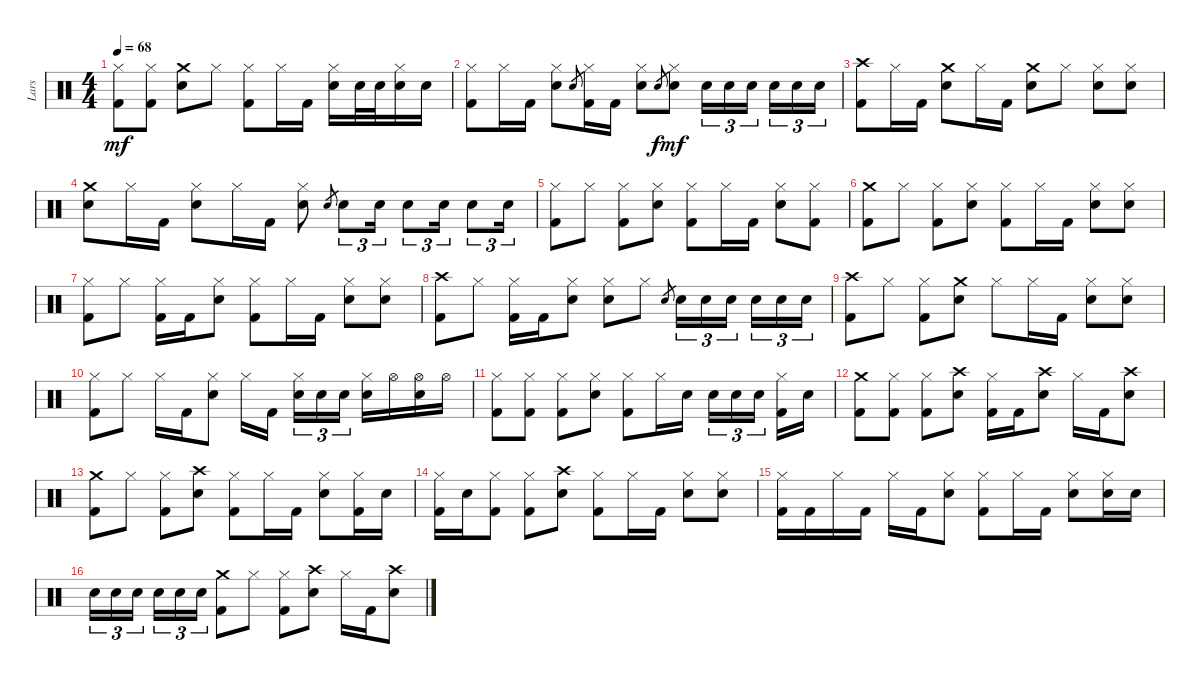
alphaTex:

\track ("Lars" "Lars") {instrument percussion}
\staff {score}
\articulation defaults
\ts (4 4)
\tempo 68
\clef neutral
\ks c
("Hi-Hat (closed)" "Kick (hit) 2").8{dy mf} ("Hi-Hat (closed)" "Kick (hit) 2").8 ("Crash medium (hit)" "Electric Snare (hit)").8 "Hi-Hat (closed)".8 ("Hi-Hat (closed)" "Kick (hit) 2").8 "Hi-Hat (closed)".16 "Kick (hit) 2".16 ("Hi-Hat (closed)" "Electric Snare (hit)").16 "Electric Snare (hit)".32 "Electric Snare (hit)".32 ("Hi-Hat (closed)" "Electric Snare (hit)").16 "Electric Snare (hit)".16 |
("Hi-Hat (closed)" "Kick (hit) 2").8 "Hi-Hat (closed)".16 "Kick (hit) 2".16 ("Hi-Hat (closed)" "Electric Snare (hit)").8 "Electric Snare (hit)".8{gr} ("Hi-Hat (closed)" "Kick (hit) 2").16 "Kick (hit) 2".16 ("Hi-Hat (closed)" "Electric Snare (hit)").8 "Electric Snare (hit)".8{gr dy f} ("Hi-Hat (closed)" "Electric Snare (hit)").8{dy mf} "Electric Snare (hit)".16{tu (3 2)} "Electric Snare (hit)".16{tu (3 2)} "Electric Snare (hit)".16{tu (3 2) beam splitsecondary} "Electric Snare (hit)".16{tu (3 2)} "Electric Snare (hit)".16{tu (3 2)} "Electric Snare (hit)".16{tu (3 2)} |
("Crash high (hit)" "Kick (hit) 2").8 "Hi-Hat (closed)".16 "Kick (hit) 2".16 ("Crash medium (hit)" "Electric Snare (hit)").8 "Hi-Hat (closed)".16 "Kick (hit) 2".16 ("Crash medium (hit)" "Electric Snare (hit)").8 "Hi-Hat (closed)".8 ("Hi-Hat (closed)" "Electric Snare (hit)").8 ("Hi-Hat (closed)" "Electric Snare (hit)").8 |
("Crash medium (hit)" "Electric Snare (hit)").8 "Hi-Hat (closed)".16 "Kick (hit) 2".16 ("Hi-Hat (closed)" "Electric Snare (hit)").8 "Hi-Hat (closed)".16 "Kick (hit) 2".16 ("Hi-Hat (closed)" "Electric Snare (hit)").8 "Electric Snare (hit)".8{gr} "Electric Snare (hit)".8{tu (3 2)} "Electric Snare (hit)".16{tu (3 2)} "Electric Snare (hit)".8{tu (3 2)} "Electric Snare (hit)".16{tu (3 2)} "Electric Snare (hit)".8{tu (3 2)} "Electric Snare (hit)".16{tu (3 2)} |
("Hi-Hat (closed)" "Kick (hit) 2").8 "Hi-Hat (closed)".8 ("Hi-Hat (closed)" "Kick (hit) 2").8 ("Hi-Hat (closed)" "Electric Snare (hit)").8 ("Hi-Hat (closed)" "Kick (hit) 2").8 "Hi-Hat (closed)".16 "Kick (hit) 2".16 ("Hi-Hat (closed)" "Electric Snare (hit)").8 ("Hi-Hat (closed)" "Kick (hit) 2").8 |
("Crash medium (hit)" "Kick (hit) 2").8 "Hi-Hat (closed)".8 ("Hi-Hat (closed)" "Kick (hit) 2").8 ("Hi-Hat (closed)" "Electric Snare (hit)").8 ("Hi-Hat (closed)" "Kick (hit) 2").8 "Hi-Hat (closed)".16 "Kick (hit) 2".16 ("Hi-Hat (closed)" "Electric Snare (hit)").8 ("Hi-Hat (closed)" "Electric Snare (hit)").8 |
("Hi-Hat (closed)" "Kick (hit) 2").8 "Hi-Hat (closed)".8 ("Hi-Hat (closed)" "Kick (hit) 2").16 "Kick (hit) 2".16 ("Hi-Hat (closed)" "Electric Snare (hit)").8 ("Hi-Hat (closed)" "Kick (hit) 2").8 "Hi-Hat (closed)".16 "Kick (hit) 2".16 ("Hi-Hat (closed)" "Electric Snare (hit)").8 ("Hi-Hat (closed)" "Electric Snare (hit)").8 |
("Crash high (hit)" "Kick (hit) 2").8 "Hi-Hat (closed)".8 ("Hi-Hat (closed)" "Kick (hit) 2").16 "Kick (hit) 2".16 ("Hi-Hat (closed)" "Electric Snare (hit)").8 ("Hi-Hat (closed)" "Electric Snare (hit)").8 "Hi-Hat (closed)".8 "Electric Snare (hit)".8{gr} "Electric Snare (hit)".16{tu (3 2)} "Electric Snare (hit)".16{tu (3 2)} "Electric Snare (hit)".16{tu (3 2) beam splitsecondary} "Electric Snare (hit)".16{tu (3 2)} "Electric Snare (hit)".16{tu (3 2)} "Electric Snare (hit)".16{tu (3 2)} |
("Crash high (hit)" "Kick (hit) 2").8 "Hi-Hat (closed)".8 ("Hi-Hat (closed)" "Kick (hit) 2").8 ("Crash medium (hit)" "Electric Snare (hit)").8 "Hi-Hat (closed)".8 "Hi-Hat (closed)".16 "Kick (hit) 2".16 ("Hi-Hat (closed)" "Electric Snare (hit)").8 ("Hi-Hat (closed)" "Electric Snare (hit)").8 |
("Hi-Hat (closed)" "Kick (hit) 2").8 "Hi-Hat (closed)".8 "Hi-Hat (closed)".16 "Kick (hit) 2".16 ("Hi-Hat (closed)" "Electric Snare (hit)").8 "Hi-Hat (closed)".16 "Kick (hit) 2".16{beam splitsecondary} ("Hi-Hat (closed)" "Electric Snare (hit)").16{tu (3 2)} "Electric Snare (hit)".16{tu (3 2)} "Electric Snare (hit)".16{tu (3 2)} ("Hi-Hat (closed)" "Electric Snare (hit)").16 "Hi-Hat (open)".16 ("Hi-Hat (open)" "Electric Snare (hit)").16 "Hi-Hat (open)".16 |
("Hi-Hat (closed)" "Kick (hit) 2").8 ("Hi-Hat (closed)" "Kick (hit) 2").8 ("Hi-Hat (closed)" "Kick (hit) 2").8 ("Hi-Hat (closed)" "Electric Snare (hit)").8 ("Hi-Hat (closed)" "Kick (hit) 2").8 "Hi-Hat (closed)".16 "Electric Snare (hit)".16 "Electric Snare (hit)".16{tu (3 2)} "Electric Snare (hit)".16{tu (3 2)} "Electric Snare (hit)".16{tu (3 2) beam splitsecondary} ("Hi-Hat (closed)" "Kick (hit) 2").16 "Electric Snare (hit)".16 |
("Crash medium (hit)" "Kick (hit) 2").8 ("Hi-Hat (closed)" "Kick (hit) 2").8 ("Hi-Hat (closed)" "Kick (hit) 2").8 ("Crash high (hit)" "Electric Snare (hit)").8 ("Hi-Hat (closed)" "Kick (hit) 2").16 "Kick (hit) 2".16 ("Crash high (hit)" "Electric Snare (hit)").8 "Hi-Hat (closed)".16 "Kick (hit) 2".16 ("Crash high (hit)" "Electric Snare (hit)").8 |
("Crash medium (hit)" "Kick (hit) 2").8 "Hi-Hat (closed)".8 ("Hi-Hat (closed)" "Kick (hit) 2").8 ("Crash high (hit)" "Electric Snare (hit)").8 ("Hi-Hat (closed)" "Kick (hit) 2").8 "Hi-Hat (closed)".16 "Kick (hit) 2".16 ("Hi-Hat (closed)" "Electric Snare (hit)").8 ("Hi-Hat (closed)" "Kick (hit) 2").16 "Electric Snare (hit)".16 |
("Hi-Hat (closed)" "Kick (hit) 2").16 "Electric Snare (hit)".16 ("Hi-Hat (closed)" "Kick (hit) 2").8 ("Hi-Hat (closed)" "Kick (hit) 2").8 ("Crash high (hit)" "Electric Snare (hit)").8 ("Hi-Hat (closed)" "Kick (hit) 2").8 "Hi-Hat (closed)".16 "Kick (hit) 2".16 ("Hi-Hat (closed)" "Electric Snare (hit)").8 ("Hi-Hat (closed)" "Electric Snare (hit)").8 |
("Hi-Hat (closed)" "Kick (hit) 2").16 "Kick (hit) 2".16 "Hi-Hat (closed)".16 "Kick (hit) 2".16 "Hi-Hat (closed)".16 "Kick (hit) 2".16 ("Hi-Hat (closed)" "Electric Snare (hit)").8 ("Hi-Hat (closed)" "Kick (hit) 2").8 "Hi-Hat (closed)".16 "Kick (hit) 2".16 ("Hi-Hat (closed)" "Electric Snare (hit)").8 ("Hi-Hat (closed)" "Electric Snare (hit)").16 "Electric Snare (hit)".16 |
"Electric Snare (hit)".16{tu (3 2)} "Electric Snare (hit)".16{tu (3 2)} "Electric Snare (hit)".16{tu (3 2) beam splitsecondary} "Electric Snare (hit)".16{tu (3 2)} "Electric Snare (hit)".16{tu (3 2)} "Electric Snare (hit)".16{tu (3 2)} ("Crash medium (hit)" "Kick (hit) 2").8 "Hi-Hat (closed)".8 ("Hi-Hat (closed)" "Kick (hit) 2").8 ("Crash high (hit)" "Electric Snare (hit)").8 "Hi-Hat (closed)".16 "Kick (hit) 2".16 ("Crash high (hit)" "Electric Snare (hit)").8
